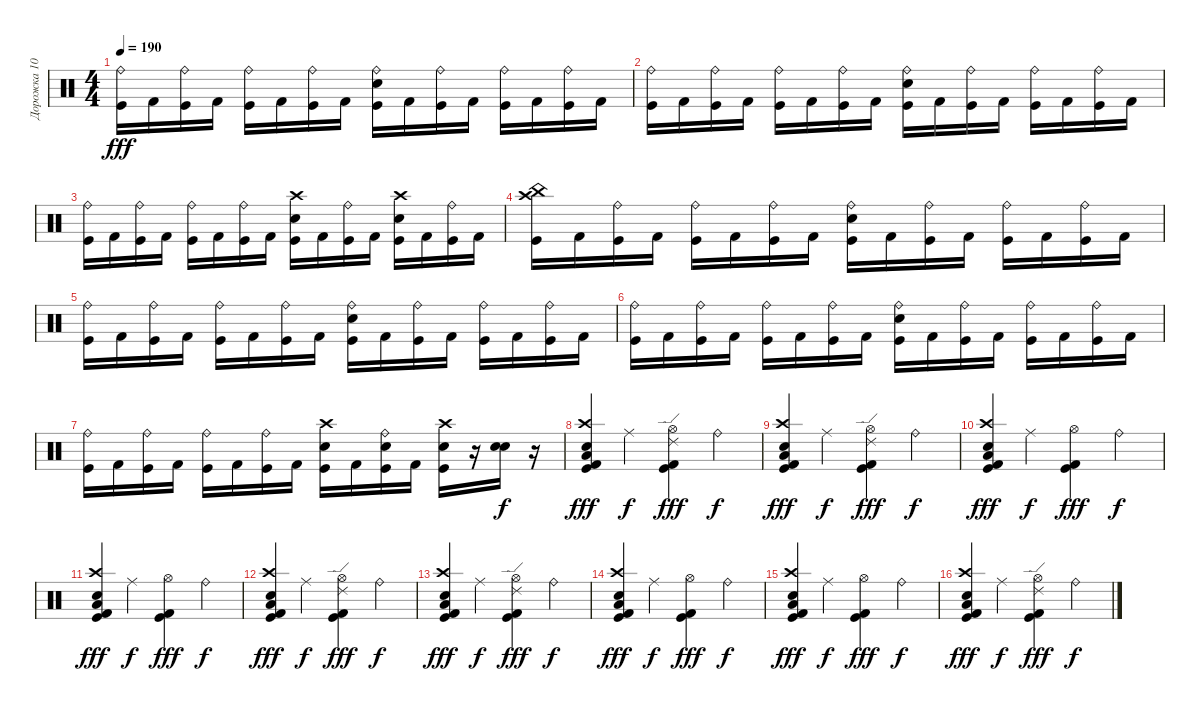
\track ("Дорожка 10" "Дорожка 10") {instrument percussion}
\staff {score}
\articulation defaults
\ts (4 4)
\tempo 190
\clef neutral
\ks c
("Ride (bell)" "Kick (hit)").16{dy fff} "Kick (hit) 2".16 ("Kick (hit)" "Ride (bell)").16 "Kick (hit) 2".16 ("Kick (hit)" "Ride (bell)").16 "Kick (hit) 2".16 ("Kick (hit)" "Ride (bell)").16 "Kick (hit) 2".16 ("Kick (hit)" "Ride (bell)" "Electric Snare (hit)").16 "Kick (hit) 2".16 ("Kick (hit)" "Ride (bell)").16 "Kick (hit) 2".16 ("Kick (hit)" "Ride (bell)").16 "Kick (hit) 2".16 ("Ride (bell)" "Kick (hit)").16 "Kick (hit) 2".16 |
("Kick (hit)" "Ride (bell)").16 "Kick (hit) 2".16 ("Kick (hit)" "Ride (bell)").16 "Kick (hit) 2".16 ("Ride (bell)" "Kick (hit)").16 "Kick (hit) 2".16 ("Kick (hit)" "Ride (bell)").16 "Kick (hit) 2".16 ("Ride (bell)" "Electric Snare (hit)" "Kick (hit)").16 "Kick (hit) 2".16 ("Kick (hit)" "Ride (bell)").16 "Kick (hit) 2".16 ("Ride (bell)" "Kick (hit)").16 "Kick (hit) 2".16 ("Kick (hit)" "Ride (bell)").16 "Kick (hit) 2".16 |
("Kick (hit)" "Ride (bell)").16 "Kick (hit) 2".16 ("Kick (hit)" "Ride (bell)").16 "Kick (hit) 2".16 ("Ride (bell)" "Kick (hit)").16 "Kick (hit) 2".16 ("Ride (bell)" "Kick (hit)").16 "Kick (hit) 2".16 ("Electric Snare (hit)" "Crash high (hit)" "Kick (hit)").16 "Kick (hit) 2".16 ("Kick (hit)" "Ride (bell)").16 "Kick (hit) 2".16 ("Electric Snare (hit)" "Crash high (hit)" "Kick (hit)").16 "Kick (hit) 2".16 ("Ride (bell)" "Kick (hit)").16 "Kick (hit) 2".16 |
("Crash high (hit)" "China (hit)" "Kick (hit)").16 "Kick (hit) 2".16 ("Ride (bell)" "Kick (hit)").16 "Kick (hit) 2".16 ("Ride (bell)" "Kick (hit)").16 "Kick (hit) 2".16 ("Ride (bell)" "Kick (hit)").16 "Kick (hit) 2".16 ("Electric Snare (hit)" "Kick (hit)" "Ride (bell)").16 "Kick (hit) 2".16 ("Kick (hit)" "Ride (bell)").16 "Kick (hit) 2".16 ("Ride (bell)" "Kick (hit)").16 "Kick (hit) 2".16 ("Ride (bell)" "Kick (hit)").16 "Kick (hit) 2".16 |
("Kick (hit)" "Ride (bell)").16 "Kick (hit) 2".16 ("Kick (hit)" "Ride (bell)").16 "Kick (hit) 2".16 ("Ride (bell)" "Kick (hit)").16 "Kick (hit) 2".16 ("Ride (bell)" "Kick (hit)").16 "Kick (hit) 2".16 ("Ride (bell)" "Kick (hit)" "Electric Snare (hit)").16 "Kick (hit) 2".16 ("Ride (bell)" "Kick (hit)").16 "Kick (hit) 2".16 ("Ride (bell)" "Kick (hit)").16 "Kick (hit) 2".16 ("Kick (hit)" "Ride (bell)").16 "Kick (hit) 2".16 |
("Ride (bell)" "Kick (hit)").16 "Kick (hit) 2".16 ("Kick (hit)" "Ride (bell)").16 "Kick (hit) 2".16 ("Kick (hit)" "Ride (bell)").16 "Kick (hit) 2".16 ("Kick (hit)" "Ride (bell)").16 "Kick (hit) 2".16 ("Electric Snare (hit)" "Ride (bell)" "Kick (hit)").16 "Kick (hit) 2".16 ("Kick (hit)" "Ride (bell)").16 "Kick (hit) 2".16 ("Ride (bell)" "Kick (hit)").16 "Kick (hit) 2".16 ("Ride (bell)" "Kick (hit)").16 "Kick (hit) 2".16 |
("Ride (bell)" "Kick (hit)").16 "Kick (hit) 2".16 ("Kick (hit)" "Ride (bell)").16 "Kick (hit) 2".16 ("Ride (bell)" "Kick (hit)").16 "Kick (hit) 2".16 ("Kick (hit)" "Ride (bell)").16 "Kick (hit) 2".16 ("Crash high (hit)" "Kick (hit)" "Electric Snare (hit)").16 "Kick (hit) 2".16 ("Kick (hit)" "Electric Snare (hit)" "Ride (bell)").16 "Kick (hit) 2".16 ("Crash high (hit)" "Electric Snare (hit)" "Kick (hit)").16 r.16 ("Snare (hit) 2" "Electric Snare (hit)").16{dy f} r.16 |
("Low Floor Tom (hit)" "Kick (hit)" "Snare (hit) 2" "Kick (hit) 2" "Crash high (hit)").4{dy fff} "Ride (middle)".4{dy f} ("Kick (hit)" "Ride (edge) 2" "Hi-Hat (open)" "Kick (hit) 2").4{dy fff} "Ride (bell)".4{dy f} |
("Crash high (hit)" "Low Floor Tom (hit)" "Kick (hit)" "Kick (hit) 2" "Snare (hit) 2").4{dy fff} "Ride (middle)".4{dy f} ("Hi-Hat (open)" "Ride (edge) 2" "Kick (hit) 2" "Kick (hit)").4{dy fff} "Ride (bell)".4{dy f} |
("Snare (hit) 2" "Crash high (hit)" "Low Floor Tom (hit)" "Kick (hit)" "Kick (hit) 2").4{dy fff} "Ride (middle)".4{dy f} ("Kick (hit) 2" "Hi-Hat (open)" "Kick (hit)").4{dy fff} "Ride (bell)".4{dy f} |
("Kick (hit)" "Crash high (hit)" "Low Floor Tom (hit)" "Kick (hit) 2" "Snare (hit) 2").4{dy fff} "Ride (middle)".4{dy f} ("Kick (hit) 2" "Kick (hit)" "Hi-Hat (open)").4{dy fff} "Ride (bell)".4{dy f} |
("Kick (hit) 2" "Crash high (hit)" "Low Floor Tom (hit)" "Kick (hit)" "Snare (hit) 2").4{dy fff} "Ride (middle)".4{dy f} ("Kick (hit) 2" "Ride (edge) 2" "Kick (hit)" "Hi-Hat (open)").4{dy fff} "Ride (bell)".4{dy f} |
("Crash high (hit)" "Snare (hit) 2" "Low Floor Tom (hit)" "Kick (hit)" "Kick (hit) 2").4{dy fff} "Ride (middle)".4{dy f} ("Kick (hit)" "Kick (hit) 2" "Ride (edge) 2" "Hi-Hat (open)").4{dy fff} "Ride (bell)".4{dy f} |
("Snare (hit) 2" "Low Floor Tom (hit)" "Kick (hit) 2" "Kick (hit)" "Crash high (hit)").4{dy fff} "Ride (middle)".4{dy f} ("Kick (hit)" "Kick (hit) 2" "Hi-Hat (open)").4{dy fff} "Ride (bell)".4{dy f} |
("Crash high (hit)" "Kick (hit)" "Low Floor Tom (hit)" "Kick (hit) 2" "Snare (hit) 2").4{dy fff} "Ride (middle)".4{dy f} ("Kick (hit)" "Hi-Hat (open)" "Kick (hit) 2").4{dy fff} "Ride (bell)".4{dy f} |
("Kick (hit) 2" "Kick (hit)" "Snare (hit) 2" "Low Floor Tom (hit)" "Crash high (hit)").4{dy fff} "Ride (middle)".4{dy f} ("Ride (edge) 2" "Hi-Hat (open)" "Kick (hit) 2" "Kick (hit)").4{dy fff} "Ride (bell)".4{dy f}
